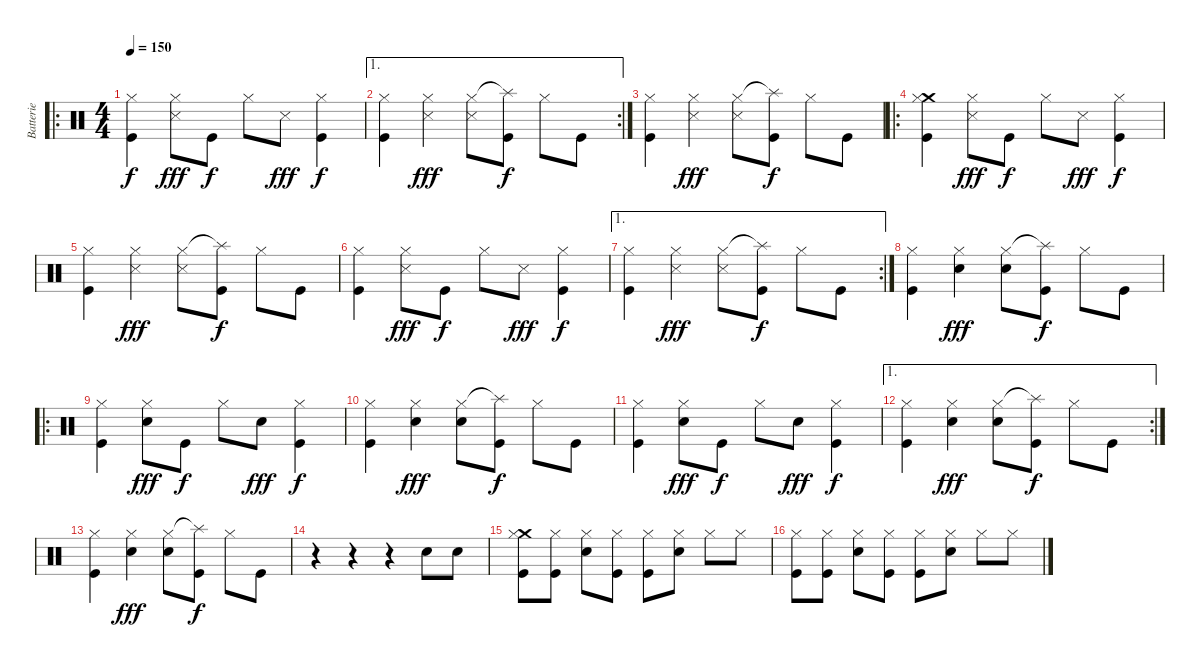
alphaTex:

\track ("Batterie" "Batterie") {instrument percussion}
\staff {score}
\articulation defaults
\ro
\ts (4 4)
\tempo 150
\clef neutral
\ks c
("Hi-Hat (closed)" "Kick (hit)").4{dy f} ("Hi-Hat (closed)" "Snare (side stick) 3").8{dy fff} "Kick (hit)".8{dy f} "Hi-Hat (closed)".8 "Snare (side stick) 3".8{dy fff} ("Hi-Hat (closed)" "Kick (hit)").4{dy f} |
\ae 1
\rc 2
("Hi-Hat (closed)" "Kick (hit)").4 ("Hi-Hat (closed)" "Snare (side stick) 3").4{dy fff} ("Hi-Hat (closed)" "Snare (side stick) 3").8 ("Splash (hit)"{t} "Kick (hit)").8{dy f} "Hi-Hat (closed)".8 "Kick (hit)".8 |
("Hi-Hat (closed)" "Kick (hit)").4 ("Hi-Hat (closed)" "Snare (side stick) 3").4{dy fff} ("Hi-Hat (closed)" "Snare (side stick) 3").8 ("Splash (hit)"{t} "Kick (hit)").8{dy f} "Hi-Hat (closed)".8 "Kick (hit)".8 |
\ro
("Crash medium (hit)" "Hi-Hat (closed)" "Kick (hit)").4 ("Hi-Hat (closed)" "Snare (side stick) 3").8{dy fff} "Kick (hit)".8{dy f} "Hi-Hat (closed)".8 "Snare (side stick) 3".8{dy fff} ("Hi-Hat (closed)" "Kick (hit)").4{dy f} |
("Hi-Hat (closed)" "Kick (hit)").4 ("Hi-Hat (closed)" "Snare (side stick) 3").4{dy fff} ("Hi-Hat (closed)" "Snare (side stick) 3").8 ("Splash (hit)"{t} "Kick (hit)").8{dy f} "Hi-Hat (closed)".8 "Kick (hit)".8 |
("Hi-Hat (closed)" "Kick (hit)").4 ("Hi-Hat (closed)" "Snare (side stick) 3").8{dy fff} "Kick (hit)".8{dy f} "Hi-Hat (closed)".8 "Snare (side stick) 3".8{dy fff} ("Hi-Hat (closed)" "Kick (hit)").4{dy f} |
\ae 1
\rc 2
("Hi-Hat (closed)" "Kick (hit)").4 ("Hi-Hat (closed)" "Snare (side stick) 3").4{dy fff} ("Hi-Hat (closed)" "Snare (side stick) 3").8 ("Splash (hit)"{t} "Kick (hit)").8{dy f} "Hi-Hat (closed)".8 "Kick (hit)".8 |
("Hi-Hat (closed)" "Kick (hit)").4 ("Hi-Hat (closed)" "Electric Snare (hit)").4{dy fff} ("Hi-Hat (closed)" "Electric Snare (hit)").8 ("Splash (hit)"{t} "Kick (hit)").8{dy f} "Hi-Hat (closed)".8 "Kick (hit)".8 |
\ro
("Hi-Hat (closed)" "Kick (hit)").4 ("Hi-Hat (closed)" "Electric Snare (hit)").8{dy fff} "Kick (hit)".8{dy f} "Hi-Hat (closed)".8 "Electric Snare (hit)".8{dy fff} ("Hi-Hat (closed)" "Kick (hit)").4{dy f} |
("Hi-Hat (closed)" "Kick (hit)").4 ("Hi-Hat (closed)" "Electric Snare (hit)").4{dy fff} ("Hi-Hat (closed)" "Electric Snare (hit)").8 ("Splash (hit)"{t} "Kick (hit)").8{dy f} "Hi-Hat (closed)".8 "Kick (hit)".8 |
("Hi-Hat (closed)" "Kick (hit)").4 ("Hi-Hat (closed)" "Electric Snare (hit)").8{dy fff} "Kick (hit)".8{dy f} "Hi-Hat (closed)".8 "Electric Snare (hit)".8{dy fff} ("Hi-Hat (closed)" "Kick (hit)").4{dy f} |
\ae 1
\rc 2
("Hi-Hat (closed)" "Kick (hit)").4 ("Hi-Hat (closed)" "Electric Snare (hit)").4{dy fff} ("Hi-Hat (closed)" "Electric Snare (hit)").8 ("Splash (hit)"{t} "Kick (hit)").8{dy f} "Hi-Hat (closed)".8 "Kick (hit)".8 |
("Hi-Hat (closed)" "Kick (hit)").4 ("Hi-Hat (closed)" "Electric Snare (hit)").4{dy fff} ("Hi-Hat (closed)" "Electric Snare (hit)").8 ("Splash (hit)"{t} "Kick (hit)").8{dy f} "Hi-Hat (closed)".8 "Kick (hit)".8 |
r.4 r.4 r.4 "Electric Snare (hit)".8 "Electric Snare (hit)".8 |
("Crash medium (hit)" "Hi-Hat (closed)" "Kick (hit)").8 ("Hi-Hat (closed)" "Kick (hit)").8 ("Hi-Hat (closed)" "Electric Snare (hit)").8 ("Hi-Hat (closed)" "Kick (hit)").8 ("Hi-Hat (closed)" "Kick (hit)").8 ("Hi-Hat (closed)" "Electric Snare (hit)").8 "Hi-Hat (closed)".8 "Hi-Hat (closed)".8 |
("Hi-Hat (closed)" "Kick (hit)").8 ("Hi-Hat (closed)" "Kick (hit)").8 ("Hi-Hat (closed)" "Electric Snare (hit)").8 ("Hi-Hat (closed)" "Kick (hit)").8 ("Hi-Hat (closed)" "Kick (hit)").8 ("Hi-Hat (closed)" "Electric Snare (hit)").8 "Hi-Hat (closed)".8 "Hi-Hat (closed)".8
